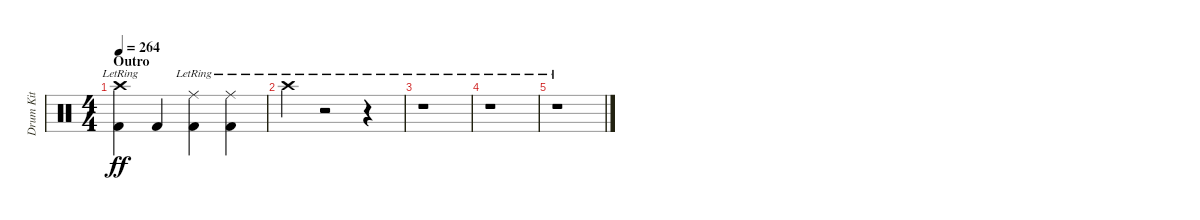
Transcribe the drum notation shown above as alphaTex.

\track ("Drum Kit" "Drum Kit") {instrument percussion}
\staff {score}
\articulation defaults
\ts (4 4)
\section ("" "Outro")
\tempo 264
\clef neutral
\ks c
("Kick (hit) 2" "Crash high (hit)"{lr}).4{dy ff} "Kick (hit) 2".4 ("Kick (hit) 2" "Ride (middle)"{lr}).4 ("Kick (hit) 2" "Ride (middle)"{lr}).4 |
"Crash high (hit)"{lr}.4 r.2 r.4 |
r.1 |
r.1 |
r.1
